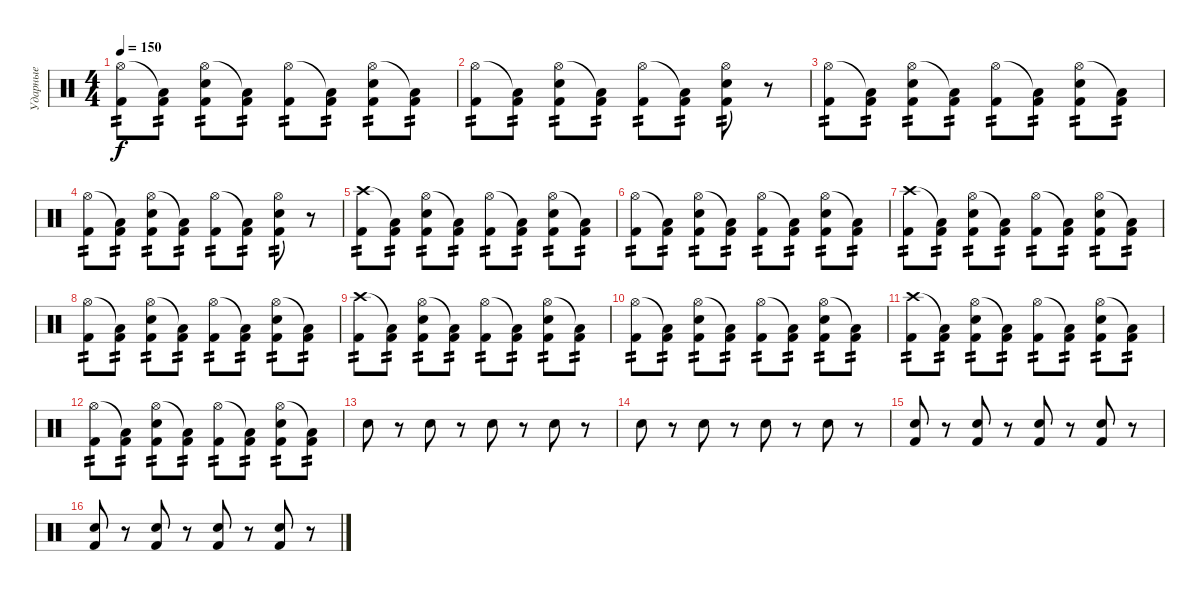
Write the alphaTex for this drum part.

\track ("Ударные" "Ударные") {instrument percussion}
\staff {score}
\articulation defaults
\ts (4 4)
\tempo 150
\clef neutral
\ks c
("Hi-Hat (open)" "Kick (hit) 2").8{tp 2 dy f} ("Low Tom (hit)"{t} "Kick (hit) 2").8{tp 2} ("Hi-Hat (open)" "Electric Snare (hit)" "Kick (hit) 2").8{tp 2} ("Low Tom (hit)"{t} "Kick (hit) 2").8{tp 2} ("Hi-Hat (open)" "Kick (hit) 2").8{tp 2} ("Low Tom (hit)"{t} "Kick (hit) 2").8{tp 2} ("Hi-Hat (open)" "Electric Snare (hit)" "Kick (hit) 2").8{tp 2} ("Low Tom (hit)"{t} "Kick (hit) 2").8{tp 2} |
("Hi-Hat (open)" "Kick (hit) 2").8{tp 2} ("Low Tom (hit)"{t} "Kick (hit) 2").8{tp 2} ("Hi-Hat (open)" "Electric Snare (hit)" "Kick (hit) 2").8{tp 2} ("Low Tom (hit)"{t} "Kick (hit) 2").8{tp 2} ("Hi-Hat (open)" "Kick (hit) 2").8{tp 2} ("Low Tom (hit)"{t} "Kick (hit) 2").8{tp 2} ("Hi-Hat (open)" "Electric Snare (hit)" "Kick (hit) 2").8{tp 2} r.8 |
("Hi-Hat (open)" "Kick (hit) 2").8{tp 2} ("Low Tom (hit)"{t} "Kick (hit) 2").8{tp 2} ("Hi-Hat (open)" "Electric Snare (hit)" "Kick (hit) 2").8{tp 2} ("Low Tom (hit)"{t} "Kick (hit) 2").8{tp 2} ("Hi-Hat (open)" "Kick (hit) 2").8{tp 2} ("Low Tom (hit)"{t} "Kick (hit) 2").8{tp 2} ("Hi-Hat (open)" "Electric Snare (hit)" "Kick (hit) 2").8{tp 2} ("Low Tom (hit)"{t} "Kick (hit) 2").8{tp 2} |
("Hi-Hat (open)" "Kick (hit) 2").8{tp 2} ("Low Tom (hit)"{t} "Kick (hit) 2").8{tp 2} ("Hi-Hat (open)" "Electric Snare (hit)" "Kick (hit) 2").8{tp 2} ("Low Tom (hit)"{t} "Kick (hit) 2").8{tp 2} ("Hi-Hat (open)" "Kick (hit) 2").8{tp 2} ("Low Tom (hit)"{t} "Kick (hit) 2").8{tp 2} ("Hi-Hat (open)" "Electric Snare (hit)" "Kick (hit) 2").8{tp 2} r.8 |
("Crash high (hit)" "Kick (hit) 2").8{tp 2} ("Low Tom (hit)"{t} "Kick (hit) 2").8{tp 2} ("Hi-Hat (open)" "Electric Snare (hit)" "Kick (hit) 2").8{tp 2} ("Low Tom (hit)"{t} "Kick (hit) 2").8{tp 2} ("Hi-Hat (open)" "Kick (hit) 2").8{tp 2} ("Low Tom (hit)"{t} "Kick (hit) 2").8{tp 2} ("Hi-Hat (open)" "Electric Snare (hit)" "Kick (hit) 2").8{tp 2} ("Low Tom (hit)"{t} "Kick (hit) 2").8{tp 2} |
("Hi-Hat (open)" "Kick (hit) 2").8{tp 2} ("Low Tom (hit)"{t} "Kick (hit) 2").8{tp 2} ("Hi-Hat (open)" "Electric Snare (hit)" "Kick (hit) 2").8{tp 2} ("Low Tom (hit)"{t} "Kick (hit) 2").8{tp 2} ("Hi-Hat (open)" "Kick (hit) 2").8{tp 2} ("Low Tom (hit)"{t} "Kick (hit) 2").8{tp 2} ("Hi-Hat (open)" "Electric Snare (hit)" "Kick (hit) 2").8{tp 2} ("Low Tom (hit)"{t} "Kick (hit) 2").8{tp 2} |
("Crash high (hit)" "Kick (hit) 2").8{tp 2} ("Low Tom (hit)"{t} "Kick (hit) 2").8{tp 2} ("Hi-Hat (open)" "Electric Snare (hit)" "Kick (hit) 2").8{tp 2} ("Low Tom (hit)"{t} "Kick (hit) 2").8{tp 2} ("Hi-Hat (open)" "Kick (hit) 2").8{tp 2} ("Low Tom (hit)"{t} "Kick (hit) 2").8{tp 2} ("Hi-Hat (open)" "Electric Snare (hit)" "Kick (hit) 2").8{tp 2} ("Low Tom (hit)"{t} "Kick (hit) 2").8{tp 2} |
("Hi-Hat (open)" "Kick (hit) 2").8{tp 2} ("Low Tom (hit)"{t} "Kick (hit) 2").8{tp 2} ("Hi-Hat (open)" "Electric Snare (hit)" "Kick (hit) 2").8{tp 2} ("Low Tom (hit)"{t} "Kick (hit) 2").8{tp 2} ("Hi-Hat (open)" "Kick (hit) 2").8{tp 2} ("Low Tom (hit)"{t} "Kick (hit) 2").8{tp 2} ("Hi-Hat (open)" "Electric Snare (hit)" "Kick (hit) 2").8{tp 2} ("Low Tom (hit)"{t} "Kick (hit) 2").8{tp 2} |
("Crash high (hit)" "Kick (hit) 2").8{tp 2} ("Low Tom (hit)"{t} "Kick (hit) 2").8{tp 2} ("Hi-Hat (open)" "Electric Snare (hit)" "Kick (hit) 2").8{tp 2} ("Low Tom (hit)"{t} "Kick (hit) 2").8{tp 2} ("Hi-Hat (open)" "Kick (hit) 2").8{tp 2} ("Low Tom (hit)"{t} "Kick (hit) 2").8{tp 2} ("Hi-Hat (open)" "Electric Snare (hit)" "Kick (hit) 2").8{tp 2} ("Low Tom (hit)"{t} "Kick (hit) 2").8{tp 2} |
("Hi-Hat (open)" "Kick (hit) 2").8{tp 2} ("Low Tom (hit)"{t} "Kick (hit) 2").8{tp 2} ("Hi-Hat (open)" "Electric Snare (hit)" "Kick (hit) 2").8{tp 2} ("Low Tom (hit)"{t} "Kick (hit) 2").8{tp 2} ("Hi-Hat (open)" "Kick (hit) 2").8{tp 2} ("Low Tom (hit)"{t} "Kick (hit) 2").8{tp 2} ("Hi-Hat (open)" "Electric Snare (hit)" "Kick (hit) 2").8{tp 2} ("Low Tom (hit)"{t} "Kick (hit) 2").8{tp 2} |
("Crash high (hit)" "Kick (hit) 2").8{tp 2} ("Low Tom (hit)"{t} "Kick (hit) 2").8{tp 2} ("Hi-Hat (open)" "Electric Snare (hit)" "Kick (hit) 2").8{tp 2} ("Low Tom (hit)"{t} "Kick (hit) 2").8{tp 2} ("Hi-Hat (open)" "Kick (hit) 2").8{tp 2} ("Low Tom (hit)"{t} "Kick (hit) 2").8{tp 2} ("Hi-Hat (open)" "Electric Snare (hit)" "Kick (hit) 2").8{tp 2} ("Low Tom (hit)"{t} "Kick (hit) 2").8{tp 2} |
("Hi-Hat (open)" "Kick (hit) 2").8{tp 2} ("Low Tom (hit)"{t} "Kick (hit) 2").8{tp 2} ("Hi-Hat (open)" "Electric Snare (hit)" "Kick (hit) 2").8{tp 2} ("Low Tom (hit)"{t} "Kick (hit) 2").8{tp 2} ("Hi-Hat (open)" "Kick (hit) 2").8{tp 2} ("Low Tom (hit)"{t} "Kick (hit) 2").8{tp 2} ("Hi-Hat (open)" "Electric Snare (hit)" "Kick (hit) 2").8{tp 2} ("Low Tom (hit)"{t} "Kick (hit) 2").8{tp 2} |
"Snare (hit) 2".8 r.8 "Snare (hit) 2".8 r.8 "Snare (hit) 2".8 r.8 "Snare (hit) 2".8 r.8 |
"Snare (hit) 2".8 r.8 "Snare (hit) 2".8 r.8 "Snare (hit) 2".8 r.8 "Snare (hit) 2".8 r.8 |
("Kick (hit) 2" "Snare (hit) 2").8 r.8 ("Kick (hit) 2" "Snare (hit) 2").8 r.8 ("Kick (hit) 2" "Snare (hit) 2").8 r.8 ("Kick (hit) 2" "Snare (hit) 2").8 r.8 |
("Kick (hit) 2" "Snare (hit) 2").8 r.8 ("Kick (hit) 2" "Snare (hit) 2").8 r.8 ("Kick (hit) 2" "Snare (hit) 2").8 r.8 ("Kick (hit) 2" "Snare (hit) 2").8 r.8
